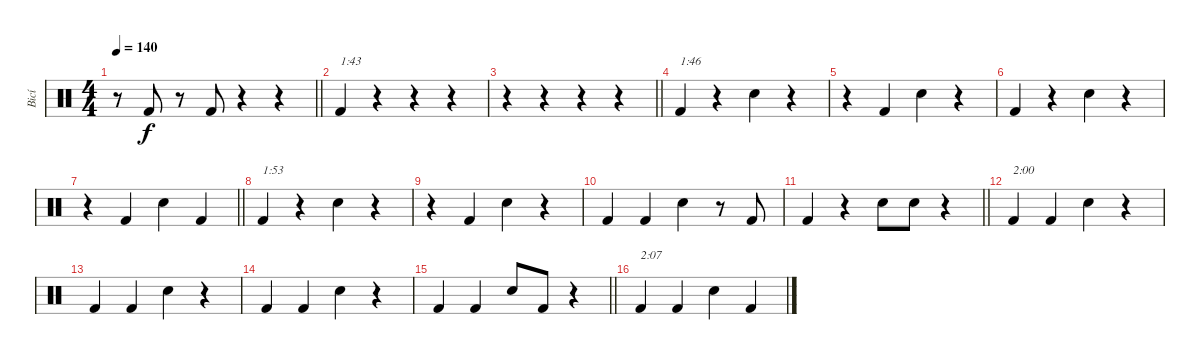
\track ("Bicí" "Bicí") {instrument percussion}
\staff {score}
\articulation defaults
\ts (4 4)
\tempo 140
\clef neutral
\barLineRight lightlight
\ks c
r.8{dy f} "Kick (hit) 2".8 r.8 "Kick (hit) 2".8 r.4 r.4 |
"Kick (hit) 2".4{txt "1:43"} r.4 r.4 r.4 |
\barLineRight lightlight
r.4 r.4 r.4 r.4 |
"Kick (hit) 2".4{txt "1:46"} r.4 "Snare (hit) 2".4 r.4 |
r.4 "Kick (hit) 2".4 "Snare (hit) 2".4 r.4 |
"Kick (hit) 2".4 r.4 "Snare (hit) 2".4 r.4 |
\barLineRight lightlight
r.4 "Kick (hit) 2".4 "Snare (hit) 2".4 "Kick (hit) 2".4 |
"Kick (hit) 2".4{txt "1:53"} r.4 "Snare (hit) 2".4 r.4 |
r.4 "Kick (hit) 2".4 "Snare (hit) 2".4 r.4 |
"Kick (hit) 2".4 "Kick (hit) 2".4 "Snare (hit) 2".4 r.8 "Kick (hit) 2".8 |
\barLineRight lightlight "Kick (hit) 2".4
r.4 "Snare (hit) 2".8 "Snare (hit) 2".8 r.4 |
"Kick (hit) 2".4{txt "2:00"} "Kick (hit) 2".4 "Snare (hit) 2".4 r.4 |
"Kick (hit) 2".4 "Kick (hit) 2".4 "Snare (hit) 2".4 r.4 |
"Kick (hit) 2".4 "Kick (hit) 2".4 "Snare (hit) 2".4 r.4 |
\barLineRight lightlight "Kick (hit) 2".4 "Kick (hit) 2".4 "Snare (hit) 2".8 "Kick (hit) 2".8
r.4 |
"Kick (hit) 2".4{txt "2:07"} "Kick (hit) 2".4 "Snare (hit) 2".4 "Kick (hit) 2".4
